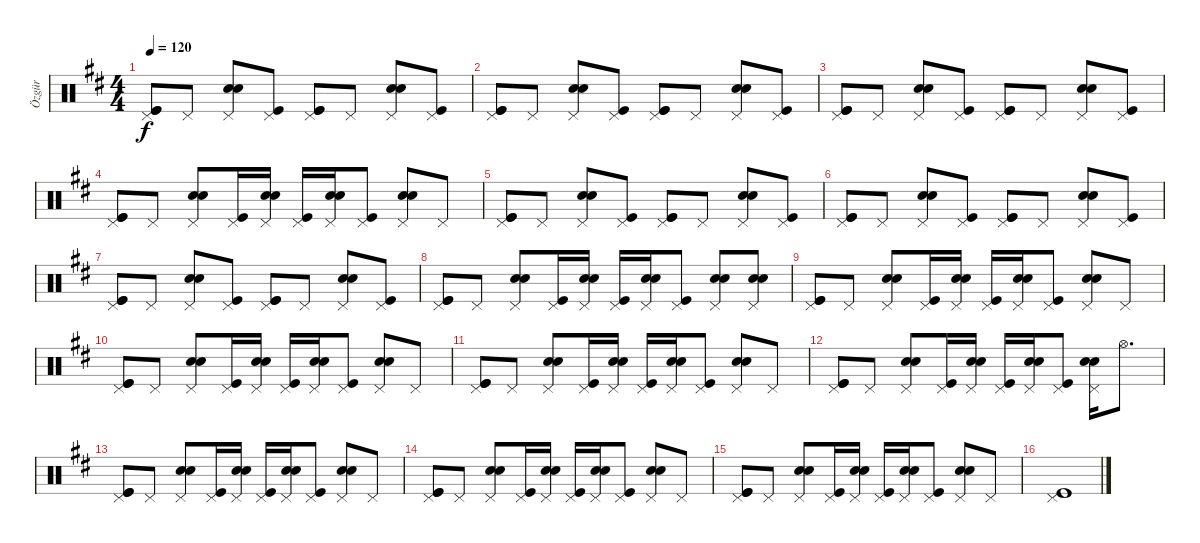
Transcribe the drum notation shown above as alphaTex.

\track ("Özgür" "Özgür") {instrument percussion}
\staff {score}
\articulation defaults
\ts (4 4)
\tempo 120
\clef neutral
\ks d
("Pedal Hi-Hat (hit)" "Kick (hit)" "Kick (hit)").8{dy f} "Pedal Hi-Hat (hit)".8 ("Pedal Hi-Hat (hit)" "Electric Snare (hit)" "Electric Snare (hit)").8 ("Pedal Hi-Hat (hit)" "Kick (hit)").8 ("Pedal Hi-Hat (hit)" "Kick (hit)" "Kick (hit)").8 "Pedal Hi-Hat (hit)".8 ("Pedal Hi-Hat (hit)" "Electric Snare (hit)" "Electric Snare (hit)").8 ("Pedal Hi-Hat (hit)" "Kick (hit)").8 |
("Pedal Hi-Hat (hit)" "Kick (hit)" "Kick (hit)").8 "Pedal Hi-Hat (hit)".8 ("Pedal Hi-Hat (hit)" "Electric Snare (hit)" "Electric Snare (hit)").8 ("Pedal Hi-Hat (hit)" "Kick (hit)").8 ("Pedal Hi-Hat (hit)" "Kick (hit)" "Kick (hit)").8 "Pedal Hi-Hat (hit)".8 ("Pedal Hi-Hat (hit)" "Electric Snare (hit)" "Electric Snare (hit)").8 ("Pedal Hi-Hat (hit)" "Kick (hit)").8 |
("Pedal Hi-Hat (hit)" "Kick (hit)" "Kick (hit)").8 "Pedal Hi-Hat (hit)".8 ("Pedal Hi-Hat (hit)" "Electric Snare (hit)" "Electric Snare (hit)").8 ("Pedal Hi-Hat (hit)" "Kick (hit)").8 ("Pedal Hi-Hat (hit)" "Kick (hit)" "Kick (hit)").8 "Pedal Hi-Hat (hit)".8 ("Pedal Hi-Hat (hit)" "Electric Snare (hit)" "Electric Snare (hit)").8 ("Pedal Hi-Hat (hit)" "Kick (hit)").8 |
("Pedal Hi-Hat (hit)" "Kick (hit)" "Kick (hit)").8 "Pedal Hi-Hat (hit)".8 ("Pedal Hi-Hat (hit)" "Electric Snare (hit)" "Electric Snare (hit)").8 ("Pedal Hi-Hat (hit)" "Kick (hit)").16 ("Pedal Hi-Hat (hit)" "Electric Snare (hit)" "Electric Snare (hit)").16 ("Pedal Hi-Hat (hit)" "Kick (hit)").16 ("Pedal Hi-Hat (hit)" "Electric Snare (hit)" "Electric Snare (hit)").16 ("Pedal Hi-Hat (hit)" "Kick (hit)").8 ("Pedal Hi-Hat (hit)" "Electric Snare (hit)" "Electric Snare (hit)").8 "Pedal Hi-Hat (hit)".8 |
("Pedal Hi-Hat (hit)" "Kick (hit)" "Kick (hit)").8 "Pedal Hi-Hat (hit)".8 ("Pedal Hi-Hat (hit)" "Electric Snare (hit)" "Electric Snare (hit)").8 ("Pedal Hi-Hat (hit)" "Kick (hit)").8 ("Pedal Hi-Hat (hit)" "Kick (hit)" "Kick (hit)").8 "Pedal Hi-Hat (hit)".8 ("Pedal Hi-Hat (hit)" "Electric Snare (hit)" "Electric Snare (hit)").8 ("Pedal Hi-Hat (hit)" "Kick (hit)").8 |
("Pedal Hi-Hat (hit)" "Kick (hit)" "Kick (hit)").8 "Pedal Hi-Hat (hit)".8 ("Pedal Hi-Hat (hit)" "Electric Snare (hit)" "Electric Snare (hit)").8 ("Pedal Hi-Hat (hit)" "Kick (hit)").8 ("Pedal Hi-Hat (hit)" "Kick (hit)" "Kick (hit)").8 "Pedal Hi-Hat (hit)".8 ("Pedal Hi-Hat (hit)" "Electric Snare (hit)" "Electric Snare (hit)").8 ("Pedal Hi-Hat (hit)" "Kick (hit)").8 |
("Pedal Hi-Hat (hit)" "Kick (hit)" "Kick (hit)").8 "Pedal Hi-Hat (hit)".8 ("Pedal Hi-Hat (hit)" "Electric Snare (hit)" "Electric Snare (hit)").8 ("Pedal Hi-Hat (hit)" "Kick (hit)").8 ("Pedal Hi-Hat (hit)" "Kick (hit)" "Kick (hit)").8 "Pedal Hi-Hat (hit)".8 ("Pedal Hi-Hat (hit)" "Electric Snare (hit)" "Electric Snare (hit)").8 ("Pedal Hi-Hat (hit)" "Kick (hit)").8 |
("Pedal Hi-Hat (hit)" "Kick (hit)" "Kick (hit)").8 "Pedal Hi-Hat (hit)".8 ("Pedal Hi-Hat (hit)" "Electric Snare (hit)" "Electric Snare (hit)").8 ("Pedal Hi-Hat (hit)" "Kick (hit)").16 ("Pedal Hi-Hat (hit)" "Electric Snare (hit)" "Electric Snare (hit)").16 ("Pedal Hi-Hat (hit)" "Kick (hit)").16 ("Pedal Hi-Hat (hit)" "Electric Snare (hit)" "Electric Snare (hit)").16 ("Pedal Hi-Hat (hit)" "Kick (hit)").8 ("Pedal Hi-Hat (hit)" "Electric Snare (hit)" "Electric Snare (hit)").8 ("Pedal Hi-Hat (hit)" "Electric Snare (hit)" "Electric Snare (hit)").8 |
("Pedal Hi-Hat (hit)" "Kick (hit)" "Kick (hit)").8 "Pedal Hi-Hat (hit)".8 ("Pedal Hi-Hat (hit)" "Electric Snare (hit)" "Electric Snare (hit)").8 ("Pedal Hi-Hat (hit)" "Kick (hit)").16 ("Pedal Hi-Hat (hit)" "Electric Snare (hit)" "Electric Snare (hit)").16 ("Pedal Hi-Hat (hit)" "Kick (hit)").16 ("Pedal Hi-Hat (hit)" "Electric Snare (hit)" "Electric Snare (hit)").16 ("Pedal Hi-Hat (hit)" "Kick (hit)").8 ("Pedal Hi-Hat (hit)" "Electric Snare (hit)" "Electric Snare (hit)").8 "Pedal Hi-Hat (hit)".8 |
("Pedal Hi-Hat (hit)" "Kick (hit)" "Kick (hit)").8 "Pedal Hi-Hat (hit)".8 ("Pedal Hi-Hat (hit)" "Electric Snare (hit)" "Electric Snare (hit)").8 ("Pedal Hi-Hat (hit)" "Kick (hit)").16 ("Pedal Hi-Hat (hit)" "Electric Snare (hit)" "Electric Snare (hit)").16 ("Pedal Hi-Hat (hit)" "Kick (hit)").16 ("Pedal Hi-Hat (hit)" "Electric Snare (hit)" "Electric Snare (hit)").16 ("Pedal Hi-Hat (hit)" "Kick (hit)").8 ("Pedal Hi-Hat (hit)" "Electric Snare (hit)" "Electric Snare (hit)").8 "Pedal Hi-Hat (hit)".8 |
("Pedal Hi-Hat (hit)" "Kick (hit)" "Kick (hit)").8 "Pedal Hi-Hat (hit)".8 ("Pedal Hi-Hat (hit)" "Electric Snare (hit)" "Electric Snare (hit)").8 ("Pedal Hi-Hat (hit)" "Kick (hit)").16 ("Pedal Hi-Hat (hit)" "Electric Snare (hit)" "Electric Snare (hit)").16 ("Pedal Hi-Hat (hit)" "Kick (hit)").16 ("Pedal Hi-Hat (hit)" "Electric Snare (hit)" "Electric Snare (hit)").16 ("Pedal Hi-Hat (hit)" "Kick (hit)").8 ("Pedal Hi-Hat (hit)" "Electric Snare (hit)" "Electric Snare (hit)").8 "Pedal Hi-Hat (hit)".8 |
("Pedal Hi-Hat (hit)" "Kick (hit)" "Kick (hit)").8 "Pedal Hi-Hat (hit)".8 ("Pedal Hi-Hat (hit)" "Electric Snare (hit)" "Electric Snare (hit)").8 ("Pedal Hi-Hat (hit)" "Kick (hit)").16 ("Pedal Hi-Hat (hit)" "Electric Snare (hit)" "Electric Snare (hit)").16 ("Pedal Hi-Hat (hit)" "Kick (hit)").16 ("Pedal Hi-Hat (hit)" "Electric Snare (hit)" "Electric Snare (hit)").16 ("Pedal Hi-Hat (hit)" "Kick (hit)").8 ("Pedal Hi-Hat (hit)" "Electric Snare (hit)" "Electric Snare (hit)").16 "Hi-Hat (open)".8{d} |
("Pedal Hi-Hat (hit)" "Kick (hit)" "Kick (hit)").8 "Pedal Hi-Hat (hit)".8 ("Pedal Hi-Hat (hit)" "Electric Snare (hit)" "Electric Snare (hit)").8 ("Pedal Hi-Hat (hit)" "Kick (hit)").16 ("Pedal Hi-Hat (hit)" "Electric Snare (hit)" "Electric Snare (hit)").16 ("Pedal Hi-Hat (hit)" "Kick (hit)").16 ("Pedal Hi-Hat (hit)" "Electric Snare (hit)" "Electric Snare (hit)").16 ("Pedal Hi-Hat (hit)" "Kick (hit)").8 ("Pedal Hi-Hat (hit)" "Electric Snare (hit)" "Electric Snare (hit)").8 "Pedal Hi-Hat (hit)".8 |
("Pedal Hi-Hat (hit)" "Kick (hit)" "Kick (hit)").8 "Pedal Hi-Hat (hit)".8 ("Pedal Hi-Hat (hit)" "Electric Snare (hit)" "Electric Snare (hit)").8 ("Pedal Hi-Hat (hit)" "Kick (hit)").16 ("Pedal Hi-Hat (hit)" "Electric Snare (hit)" "Electric Snare (hit)").16 ("Pedal Hi-Hat (hit)" "Kick (hit)").16 ("Pedal Hi-Hat (hit)" "Electric Snare (hit)" "Electric Snare (hit)").16 ("Pedal Hi-Hat (hit)" "Kick (hit)").8 ("Pedal Hi-Hat (hit)" "Electric Snare (hit)" "Electric Snare (hit)").8 "Pedal Hi-Hat (hit)".8 |
("Pedal Hi-Hat (hit)" "Kick (hit)" "Kick (hit)").8 "Pedal Hi-Hat (hit)".8 ("Pedal Hi-Hat (hit)" "Electric Snare (hit)" "Electric Snare (hit)").8 ("Pedal Hi-Hat (hit)" "Kick (hit)").16 ("Pedal Hi-Hat (hit)" "Electric Snare (hit)" "Electric Snare (hit)").16 ("Pedal Hi-Hat (hit)" "Kick (hit)").16 ("Pedal Hi-Hat (hit)" "Electric Snare (hit)" "Electric Snare (hit)").16 ("Pedal Hi-Hat (hit)" "Kick (hit)").8 ("Pedal Hi-Hat (hit)" "Electric Snare (hit)" "Electric Snare (hit)").8 "Pedal Hi-Hat (hit)".8 |
("Pedal Hi-Hat (hit)" "Kick (hit)" "Kick (hit)").1
